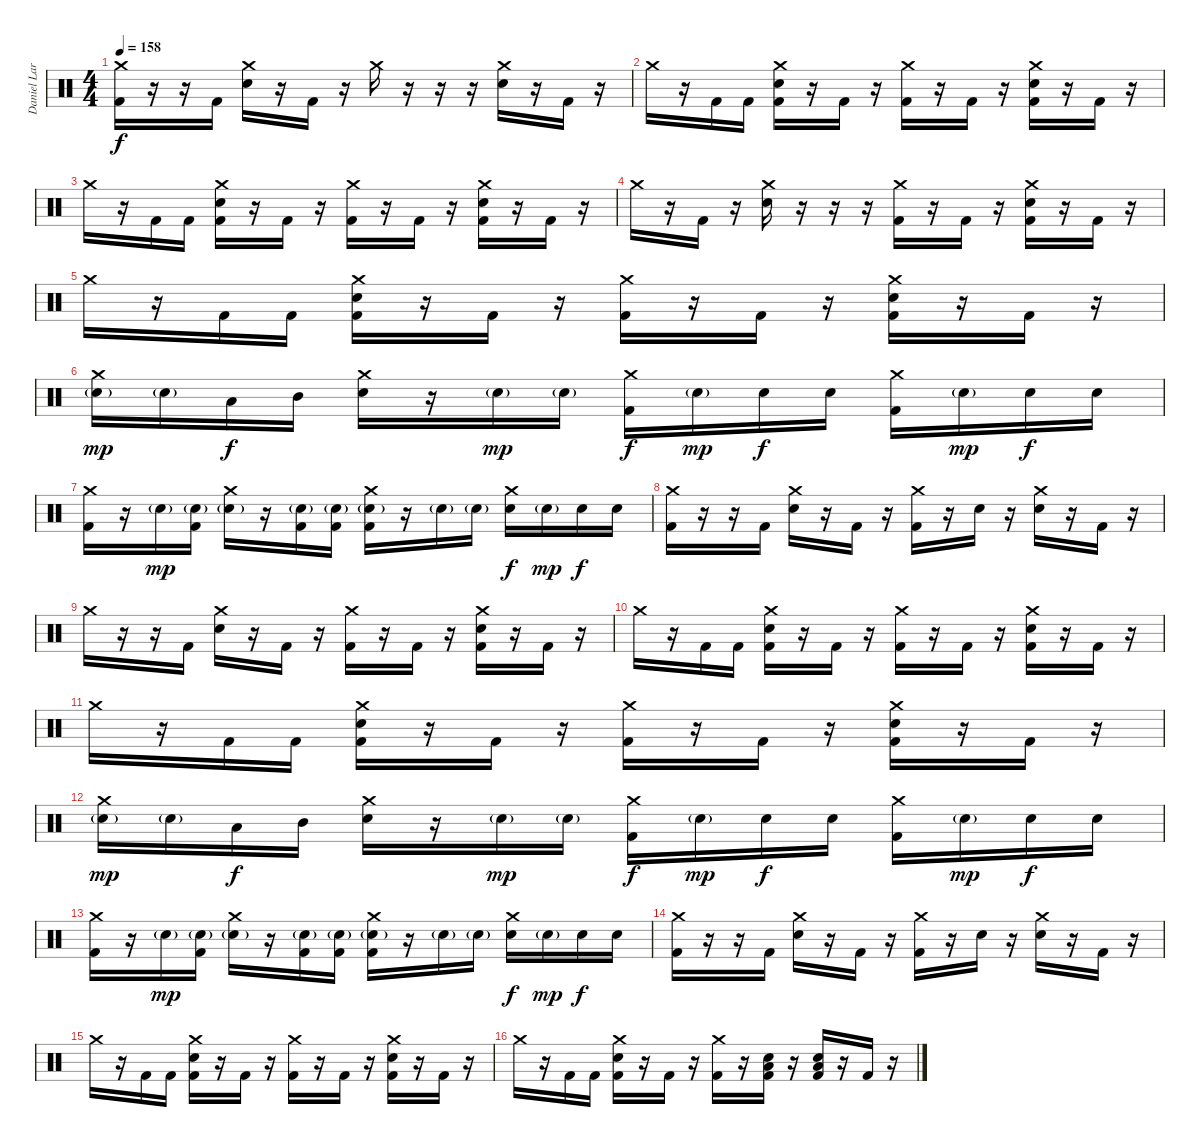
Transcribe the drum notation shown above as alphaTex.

\track ("Daniel Larsen" "Daniel Lar") {instrument percussion}
\staff {score}
\articulation defaults
\ts (4 4)
\tempo 158
\clef neutral
\ks c
("Crash medium (hit)" "Kick (hit) 2").16{dy f} r.16 r.16 "Kick (hit) 2".16 ("Crash medium (hit)" "Electric Snare (hit)").16 r.16 "Kick (hit) 2".16 r.16 "Crash medium (hit)".16 r.16 r.16 r.16 ("Crash medium (hit)" "Electric Snare (hit)").16 r.16 "Kick (hit) 2".16 r.16 |
"Crash medium (hit)".16 r.16 "Kick (hit) 2".16 "Kick (hit) 2".16 ("Crash medium (hit)" "Electric Snare (hit)" "Kick (hit) 2").16 r.16 "Kick (hit) 2".16 r.16 ("Crash medium (hit)" "Kick (hit) 2").16 r.16 "Kick (hit) 2".16 r.16 ("Crash medium (hit)" "Electric Snare (hit)" "Kick (hit) 2").16 r.16 "Kick (hit) 2".16 r.16 |
"Crash medium (hit)".16 r.16 "Kick (hit) 2".16 "Kick (hit) 2".16 ("Crash medium (hit)" "Electric Snare (hit)" "Kick (hit) 2").16 r.16 "Kick (hit) 2".16 r.16 ("Crash medium (hit)" "Kick (hit) 2").16 r.16 "Kick (hit) 2".16 r.16 ("Crash medium (hit)" "Electric Snare (hit)" "Kick (hit) 2").16 r.16 "Kick (hit) 2".16 r.16 |
"Crash medium (hit)".16 r.16 "Kick (hit) 2".16 r.16 ("Crash medium (hit)" "Electric Snare (hit)").16 r.16 r.16 r.16 ("Crash medium (hit)" "Kick (hit) 2").16 r.16 "Kick (hit) 2".16 r.16 ("Crash medium (hit)" "Electric Snare (hit)" "Kick (hit) 2").16 r.16 "Kick (hit) 2".16 r.16 |
"Crash medium (hit)".16 r.16 "Kick (hit) 2".16 "Kick (hit) 2".16 ("Crash medium (hit)" "Electric Snare (hit)" "Kick (hit) 2").16 r.16 "Kick (hit) 2".16 r.16 ("Crash medium (hit)" "Kick (hit) 2").16 r.16 "Kick (hit) 2".16 r.16 ("Crash medium (hit)" "Electric Snare (hit)" "Kick (hit) 2").16 r.16 "Kick (hit) 2".16 r.16 |
("Crash medium (hit)" "Electric Snare (hit)"{g}).16{dy mp} "Electric Snare (hit)"{g}.16 "Low Tom (hit)".16{dy f} "Mid Tom (hit)".16 ("Crash medium (hit)" "Electric Snare (hit)").16 r.16 "Electric Snare (hit)"{g}.16{dy mp} "Electric Snare (hit)"{g}.16 ("Crash medium (hit)" "Kick (hit) 2").16{dy f} "Electric Snare (hit)"{g}.16{dy mp} "Electric Snare (hit)".16{dy f} "Electric Snare (hit)".16 ("Crash medium (hit)" "Kick (hit) 2").16 "Electric Snare (hit)"{g}.16{dy mp} "Electric Snare (hit)".16{dy f} "Electric Snare (hit)".16 |
("Crash medium (hit)" "Kick (hit) 2").16 r.16 "Electric Snare (hit)"{g}.16{dy mp} ("Electric Snare (hit)"{g} "Kick (hit) 2").16 ("Crash medium (hit)" "Electric Snare (hit)"{g}).16 r.16 ("Electric Snare (hit)"{g} "Kick (hit) 2").16 ("Electric Snare (hit)"{g} "Kick (hit) 2").16 ("Crash medium (hit)" "Electric Snare (hit)"{g} "Kick (hit) 2").16 r.16 "Electric Snare (hit)"{g}.16 "Electric Snare (hit)"{g}.16 ("Crash medium (hit)" "Electric Snare (hit)").16{dy f} "Electric Snare (hit)"{g}.16{dy mp} "Electric Snare (hit)".16{dy f} "Electric Snare (hit)".16 |
("Crash medium (hit)" "Kick (hit) 2").16 r.16 r.16 "Kick (hit) 2".16 ("Crash medium (hit)" "Electric Snare (hit)").16 r.16 "Kick (hit) 2".16 r.16 ("Crash medium (hit)" "Kick (hit) 2").16 r.16 "Electric Snare (hit)".16 r.16 ("Crash medium (hit)" "Electric Snare (hit)").16 r.16 "Kick (hit) 2".16 r.16 |
"Crash medium (hit)".16 r.16 r.16 "Kick (hit) 2".16 ("Crash medium (hit)" "Electric Snare (hit)").16 r.16 "Kick (hit) 2".16 r.16 ("Crash medium (hit)" "Kick (hit) 2").16 r.16 "Kick (hit) 2".16 r.16 ("Crash medium (hit)" "Electric Snare (hit)" "Kick (hit) 2").16 r.16 "Kick (hit) 2".16 r.16 |
"Crash medium (hit)".16 r.16 "Kick (hit) 2".16 "Kick (hit) 2".16 ("Crash medium (hit)" "Electric Snare (hit)" "Kick (hit) 2").16 r.16 "Kick (hit) 2".16 r.16 ("Crash medium (hit)" "Kick (hit) 2").16 r.16 "Kick (hit) 2".16 r.16 ("Crash medium (hit)" "Electric Snare (hit)" "Kick (hit) 2").16 r.16 "Kick (hit) 2".16 r.16 |
"Crash medium (hit)".16 r.16 "Kick (hit) 2".16 "Kick (hit) 2".16 ("Crash medium (hit)" "Electric Snare (hit)" "Kick (hit) 2").16 r.16 "Kick (hit) 2".16 r.16 ("Crash medium (hit)" "Kick (hit) 2").16 r.16 "Kick (hit) 2".16 r.16 ("Crash medium (hit)" "Electric Snare (hit)" "Kick (hit) 2").16 r.16 "Kick (hit) 2".16 r.16 |
("Crash medium (hit)" "Electric Snare (hit)"{g}).16{dy mp} "Electric Snare (hit)"{g}.16 "Low Tom (hit)".16{dy f} "Mid Tom (hit)".16 ("Crash medium (hit)" "Electric Snare (hit)").16 r.16 "Electric Snare (hit)"{g}.16{dy mp} "Electric Snare (hit)"{g}.16 ("Crash medium (hit)" "Kick (hit) 2").16{dy f} "Electric Snare (hit)"{g}.16{dy mp} "Electric Snare (hit)".16{dy f} "Electric Snare (hit)".16 ("Crash medium (hit)" "Kick (hit) 2").16 "Electric Snare (hit)"{g}.16{dy mp} "Electric Snare (hit)".16{dy f} "Electric Snare (hit)".16 |
("Crash medium (hit)" "Kick (hit) 2").16 r.16 "Electric Snare (hit)"{g}.16{dy mp} ("Electric Snare (hit)"{g} "Kick (hit) 2").16 ("Crash medium (hit)" "Electric Snare (hit)"{g}).16 r.16 ("Electric Snare (hit)"{g} "Kick (hit) 2").16 ("Electric Snare (hit)"{g} "Kick (hit) 2").16 ("Crash medium (hit)" "Electric Snare (hit)"{g} "Kick (hit) 2").16 r.16 "Electric Snare (hit)"{g}.16 "Electric Snare (hit)"{g}.16 ("Crash medium (hit)" "Electric Snare (hit)").16{dy f} "Electric Snare (hit)"{g}.16{dy mp} "Electric Snare (hit)".16{dy f} "Electric Snare (hit)".16 |
("Crash medium (hit)" "Kick (hit) 2").16 r.16 r.16 "Kick (hit) 2".16 ("Crash medium (hit)" "Electric Snare (hit)").16 r.16 "Kick (hit) 2".16 r.16 ("Crash medium (hit)" "Kick (hit) 2").16 r.16 "Electric Snare (hit)".16 r.16 ("Crash medium (hit)" "Electric Snare (hit)").16 r.16 "Kick (hit) 2".16 r.16 |
"Crash medium (hit)".16 r.16 "Kick (hit) 2".16 "Kick (hit) 2".16 ("Crash medium (hit)" "Electric Snare (hit)" "Kick (hit) 2").16 r.16 "Kick (hit) 2".16 r.16 ("Crash medium (hit)" "Kick (hit) 2").16 r.16 "Kick (hit) 2".16 r.16 ("Crash medium (hit)" "Electric Snare (hit)" "Kick (hit) 2").16 r.16 "Kick (hit) 2".16 r.16 |
"Crash medium (hit)".16 r.16 "Kick (hit) 2".16 "Kick (hit) 2".16 ("Crash medium (hit)" "Electric Snare (hit)" "Kick (hit) 2").16 r.16 "Kick (hit) 2".16 r.16 ("Crash medium (hit)" "Kick (hit) 2").16 r.16 ("Low Tom (hit)" "Electric Snare (hit)" "Kick (hit) 2").16 r.16 ("Low Tom (hit)" "Electric Snare (hit)" "Kick (hit) 2").16 r.16 "Kick (hit) 2".16 r.16
